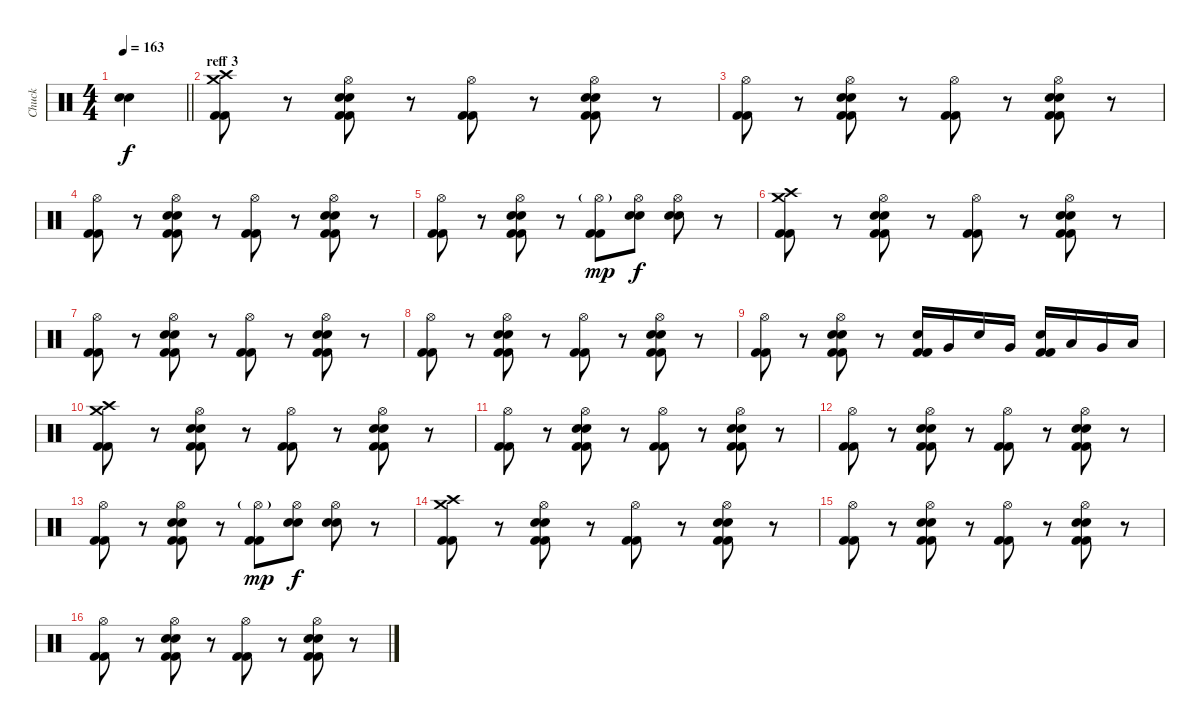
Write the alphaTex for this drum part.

\track ("Chuck" "Chuck") {instrument percussion}
\staff {score}
\articulation defaults
\ts (4 4)
\tempo 163
\clef neutral
\barLineRight lightlight
\ks c
("Snare (hit) 2" "Snare (hit) 2").4{dy f} |
\section ("" "reff 3")
("Crash medium (hit)" "Crash high (hit)" "Kick (hit) 2" "Kick (hit) 2").8 r.8 ("Hi-Hat (open)" "Snare (hit) 2" "Snare (hit) 2" "Kick (hit) 2" "Kick (hit) 2").8 r.8 ("Hi-Hat (open)" "Kick (hit) 2" "Kick (hit) 2").8 r.8 ("Hi-Hat (open)" "Snare (hit) 2" "Snare (hit) 2" "Kick (hit) 2" "Kick (hit) 2").8 r.8 |
("Hi-Hat (open)" "Kick (hit) 2" "Kick (hit) 2").8 r.8 ("Hi-Hat (open)" "Snare (hit) 2" "Snare (hit) 2" "Kick (hit) 2" "Kick (hit) 2").8 r.8 ("Hi-Hat (open)" "Kick (hit) 2" "Kick (hit) 2").8 r.8 ("Hi-Hat (open)" "Snare (hit) 2" "Snare (hit) 2" "Kick (hit) 2" "Kick (hit) 2").8 r.8 |
("Hi-Hat (open)" "Kick (hit) 2" "Kick (hit) 2").8 r.8 ("Hi-Hat (open)" "Snare (hit) 2" "Snare (hit) 2" "Kick (hit) 2" "Kick (hit) 2").8 r.8 ("Hi-Hat (open)" "Kick (hit) 2" "Kick (hit) 2").8 r.8 ("Hi-Hat (open)" "Snare (hit) 2" "Snare (hit) 2" "Kick (hit) 2" "Kick (hit) 2").8 r.8 |
("Hi-Hat (open)" "Kick (hit) 2" "Kick (hit) 2").8 r.8 ("Hi-Hat (open)" "Snare (hit) 2" "Snare (hit) 2" "Kick (hit) 2" "Kick (hit) 2").8 r.8 ("Hi-Hat (open)"{g} "Kick (hit) 2" "Kick (hit) 2").8{dy mp} ("Hi-Hat (open)" "Snare (hit) 2" "Snare (hit) 2").8{dy f} ("Hi-Hat (open)" "Snare (hit) 2" "Snare (hit) 2").8 r.8 |
("Crash medium (hit)" "Crash high (hit)" "Kick (hit) 2" "Kick (hit) 2").8 r.8 ("Hi-Hat (open)" "Snare (hit) 2" "Snare (hit) 2" "Kick (hit) 2" "Kick (hit) 2").8 r.8 ("Hi-Hat (open)" "Kick (hit) 2" "Kick (hit) 2").8 r.8 ("Hi-Hat (open)" "Snare (hit) 2" "Snare (hit) 2" "Kick (hit) 2" "Kick (hit) 2").8 r.8 |
("Hi-Hat (open)" "Kick (hit) 2" "Kick (hit) 2").8 r.8 ("Hi-Hat (open)" "Snare (hit) 2" "Snare (hit) 2" "Kick (hit) 2" "Kick (hit) 2").8 r.8 ("Hi-Hat (open)" "Kick (hit) 2" "Kick (hit) 2").8 r.8 ("Hi-Hat (open)" "Snare (hit) 2" "Snare (hit) 2" "Kick (hit) 2" "Kick (hit) 2").8 r.8 |
("Hi-Hat (open)" "Kick (hit) 2" "Kick (hit) 2").8 r.8 ("Hi-Hat (open)" "Snare (hit) 2" "Snare (hit) 2" "Kick (hit) 2" "Kick (hit) 2").8 r.8 ("Hi-Hat (open)" "Kick (hit) 2" "Kick (hit) 2").8 r.8 ("Hi-Hat (open)" "Snare (hit) 2" "Snare (hit) 2" "Kick (hit) 2" "Kick (hit) 2").8 r.8 |
("Hi-Hat (open)" "Kick (hit) 2" "Kick (hit) 2").8 r.8 ("Hi-Hat (open)" "Snare (hit) 2" "Snare (hit) 2" "Kick (hit) 2" "Kick (hit) 2").8 r.8 ("Snare (hit) 2" "Kick (hit) 2" "Kick (hit) 2").16 "Very Low Tom (hit)".16 "Snare (hit) 2".16 "Very Low Tom (hit)".16 ("Snare (hit) 2" "Kick (hit) 2" "Kick (hit) 2").16 "Low Tom (hit)".16 "Very Low Tom (hit)".16 "Low Floor Tom (hit)".16 |
("Crash medium (hit)" "Crash high (hit)" "Kick (hit) 2" "Kick (hit) 2").8 r.8 ("Hi-Hat (open)" "Snare (hit) 2" "Snare (hit) 2" "Kick (hit) 2" "Kick (hit) 2").8 r.8 ("Hi-Hat (open)" "Kick (hit) 2" "Kick (hit) 2").8 r.8 ("Hi-Hat (open)" "Snare (hit) 2" "Snare (hit) 2" "Kick (hit) 2" "Kick (hit) 2").8 r.8 |
("Hi-Hat (open)" "Kick (hit) 2" "Kick (hit) 2").8 r.8 ("Hi-Hat (open)" "Snare (hit) 2" "Snare (hit) 2" "Kick (hit) 2" "Kick (hit) 2").8 r.8 ("Hi-Hat (open)" "Kick (hit) 2" "Kick (hit) 2").8 r.8 ("Hi-Hat (open)" "Snare (hit) 2" "Snare (hit) 2" "Kick (hit) 2" "Kick (hit) 2").8 r.8 |
("Hi-Hat (open)" "Kick (hit) 2" "Kick (hit) 2").8 r.8 ("Hi-Hat (open)" "Snare (hit) 2" "Snare (hit) 2" "Kick (hit) 2" "Kick (hit) 2").8 r.8 ("Hi-Hat (open)" "Kick (hit) 2" "Kick (hit) 2").8 r.8 ("Hi-Hat (open)" "Snare (hit) 2" "Snare (hit) 2" "Kick (hit) 2" "Kick (hit) 2").8 r.8 |
("Hi-Hat (open)" "Kick (hit) 2" "Kick (hit) 2").8 r.8 ("Hi-Hat (open)" "Snare (hit) 2" "Snare (hit) 2" "Kick (hit) 2" "Kick (hit) 2").8 r.8 ("Hi-Hat (open)"{g} "Kick (hit) 2" "Kick (hit) 2").8{dy mp} ("Hi-Hat (open)" "Snare (hit) 2" "Snare (hit) 2").8{dy f} ("Hi-Hat (open)" "Snare (hit) 2" "Snare (hit) 2").8 r.8 |
("Crash medium (hit)" "Crash high (hit)" "Kick (hit) 2" "Kick (hit) 2").8 r.8 ("Hi-Hat (open)" "Snare (hit) 2" "Snare (hit) 2" "Kick (hit) 2" "Kick (hit) 2").8 r.8 ("Hi-Hat (open)" "Kick (hit) 2" "Kick (hit) 2").8 r.8 ("Hi-Hat (open)" "Snare (hit) 2" "Snare (hit) 2" "Kick (hit) 2" "Kick (hit) 2").8 r.8 |
("Hi-Hat (open)" "Kick (hit) 2" "Kick (hit) 2").8 r.8 ("Hi-Hat (open)" "Snare (hit) 2" "Snare (hit) 2" "Kick (hit) 2" "Kick (hit) 2").8 r.8 ("Hi-Hat (open)" "Kick (hit) 2" "Kick (hit) 2").8 r.8 ("Hi-Hat (open)" "Snare (hit) 2" "Snare (hit) 2" "Kick (hit) 2" "Kick (hit) 2").8 r.8 |
("Hi-Hat (open)" "Kick (hit) 2" "Kick (hit) 2").8 r.8 ("Hi-Hat (open)" "Snare (hit) 2" "Snare (hit) 2" "Kick (hit) 2" "Kick (hit) 2").8 r.8 ("Hi-Hat (open)" "Kick (hit) 2" "Kick (hit) 2").8 r.8 ("Hi-Hat (open)" "Snare (hit) 2" "Snare (hit) 2" "Kick (hit) 2" "Kick (hit) 2").8 r.8
